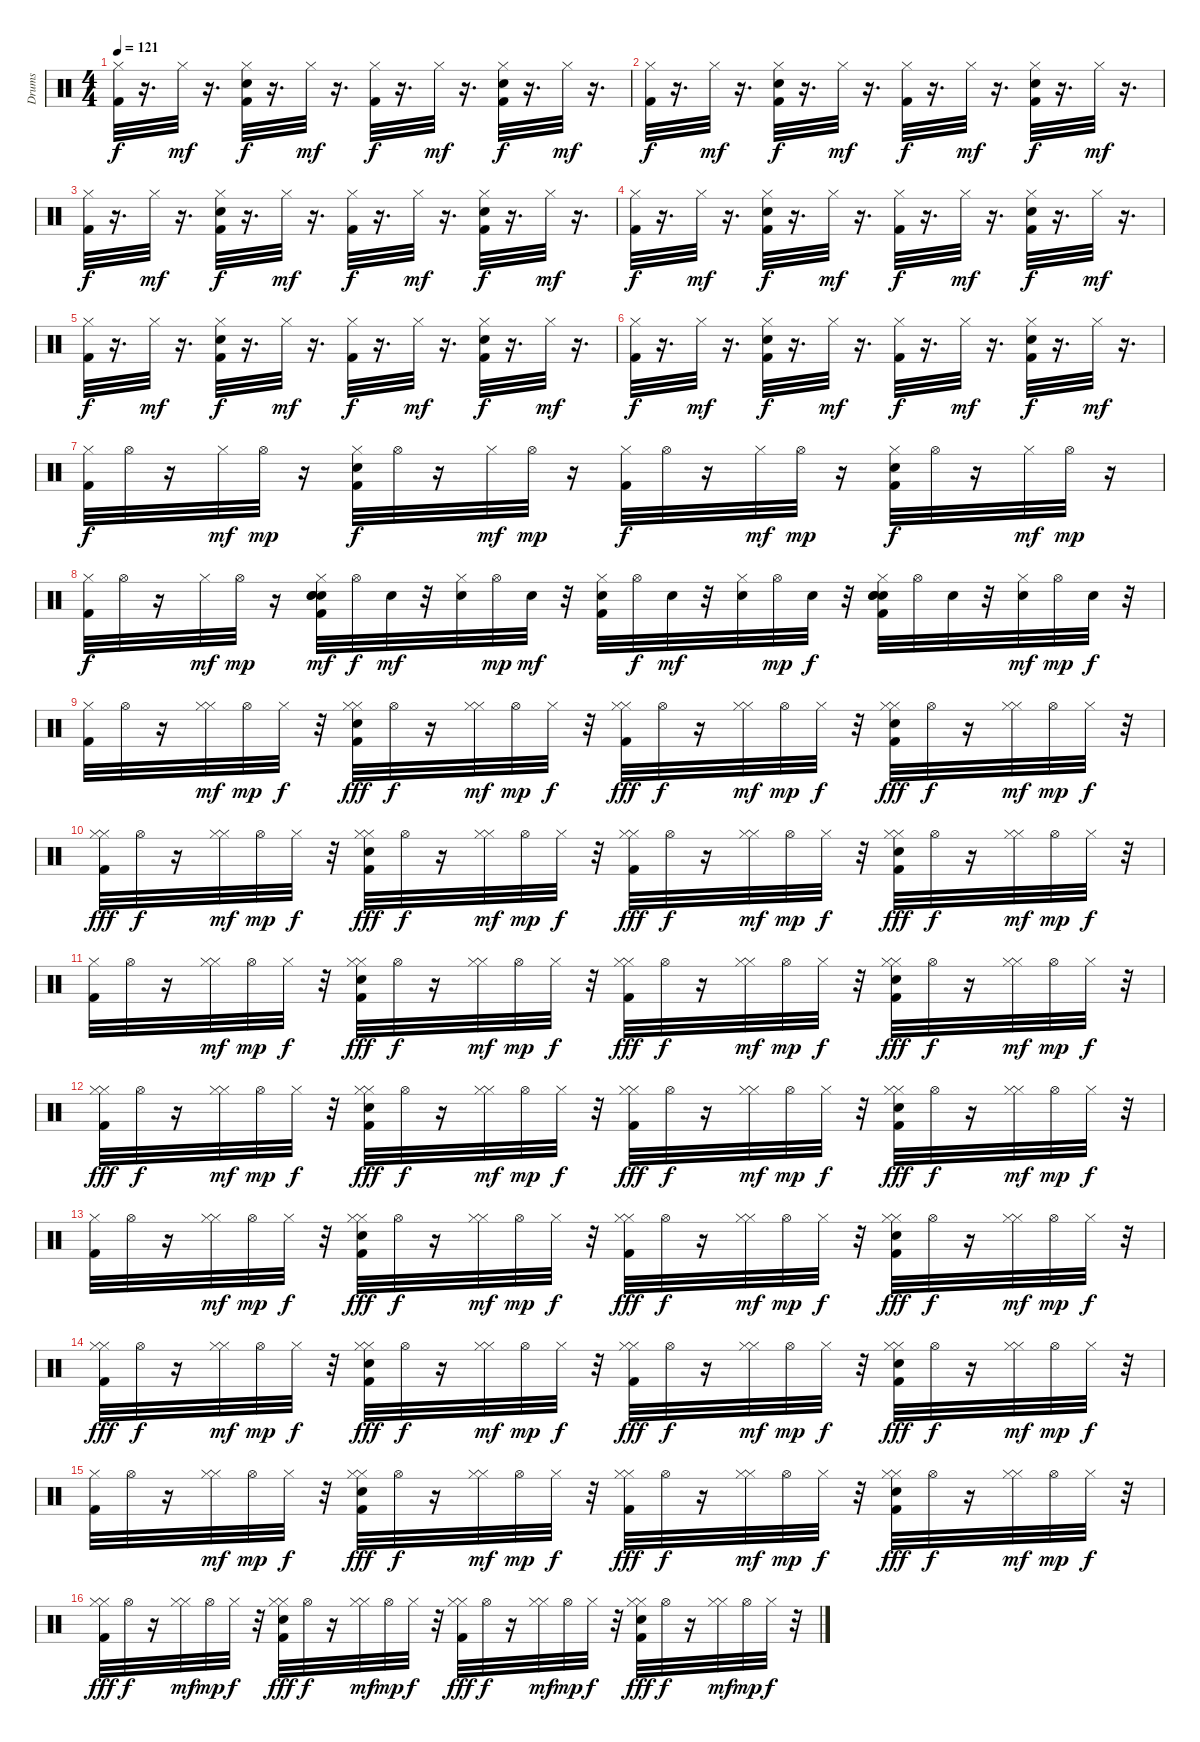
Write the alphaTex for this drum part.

\track ("Drums" "Drums") {instrument percussion}
\staff {score}
\articulation defaults
\ts (4 4)
\tempo 121
\clef neutral
\ks c
("Kick (hit) 2" "Hi-Hat (closed)").32{dy f} r.16{d} "Hi-Hat (closed)".32{dy mf} r.16{d} ("Kick (hit) 2" "Hi-Hat (closed)" "Snare (hit) 2").32{dy f} r.16{d} "Hi-Hat (closed)".32{dy mf} r.16{d} ("Hi-Hat (closed)" "Kick (hit) 2").32{dy f} r.16{d} "Hi-Hat (closed)".32{dy mf} r.16{d} ("Kick (hit) 2" "Hi-Hat (closed)" "Snare (hit) 2").32{dy f} r.16{d} "Hi-Hat (closed)".32{dy mf} r.16{d} |
("Hi-Hat (closed)" "Kick (hit) 2").32{dy f} r.16{d} "Hi-Hat (closed)".32{dy mf} r.16{d} ("Kick (hit) 2" "Hi-Hat (closed)" "Snare (hit) 2").32{dy f} r.16{d} "Hi-Hat (closed)".32{dy mf} r.16{d} ("Hi-Hat (closed)" "Kick (hit) 2").32{dy f} r.16{d} "Hi-Hat (closed)".32{dy mf} r.16{d} ("Kick (hit) 2" "Hi-Hat (closed)" "Snare (hit) 2").32{dy f} r.16{d} "Hi-Hat (closed)".32{dy mf} r.16{d} |
("Kick (hit) 2" "Hi-Hat (closed)").32{dy f} r.16{d} "Hi-Hat (closed)".32{dy mf} r.16{d} ("Kick (hit) 2" "Hi-Hat (closed)" "Snare (hit) 2").32{dy f} r.16{d} "Hi-Hat (closed)".32{dy mf} r.16{d} ("Hi-Hat (closed)" "Kick (hit) 2").32{dy f} r.16{d} "Hi-Hat (closed)".32{dy mf} r.16{d} ("Kick (hit) 2" "Hi-Hat (closed)" "Snare (hit) 2").32{dy f} r.16{d} "Hi-Hat (closed)".32{dy mf} r.16{d} |
("Hi-Hat (closed)" "Kick (hit) 2").32{dy f} r.16{d} "Hi-Hat (closed)".32{dy mf} r.16{d} ("Kick (hit) 2" "Hi-Hat (closed)" "Snare (hit) 2").32{dy f} r.16{d} "Hi-Hat (closed)".32{dy mf} r.16{d} ("Hi-Hat (closed)" "Kick (hit) 2").32{dy f} r.16{d} "Hi-Hat (closed)".32{dy mf} r.16{d} ("Kick (hit) 2" "Hi-Hat (closed)" "Snare (hit) 2").32{dy f} r.16{d} "Hi-Hat (closed)".32{dy mf} r.16{d} |
("Kick (hit) 2" "Hi-Hat (closed)").32{dy f} r.16{d} "Hi-Hat (closed)".32{dy mf} r.16{d} ("Kick (hit) 2" "Hi-Hat (closed)" "Snare (hit) 2").32{dy f} r.16{d} "Hi-Hat (closed)".32{dy mf} r.16{d} ("Hi-Hat (closed)" "Kick (hit) 2").32{dy f} r.16{d} "Hi-Hat (closed)".32{dy mf} r.16{d} ("Kick (hit) 2" "Hi-Hat (closed)" "Snare (hit) 2").32{dy f} r.16{d} "Hi-Hat (closed)".32{dy mf} r.16{d} |
("Hi-Hat (closed)" "Kick (hit) 2").32{dy f} r.16{d} "Hi-Hat (closed)".32{dy mf} r.16{d} ("Kick (hit) 2" "Hi-Hat (closed)" "Snare (hit) 2").32{dy f} r.16{d} "Hi-Hat (closed)".32{dy mf} r.16{d} ("Hi-Hat (closed)" "Kick (hit) 2").32{dy f} r.16{d} "Hi-Hat (closed)".32{dy mf} r.16{d} ("Kick (hit) 2" "Hi-Hat (closed)" "Snare (hit) 2").32{dy f} r.16{d} "Hi-Hat (closed)".32{dy mf} r.16{d} |
("Kick (hit) 2" "Hi-Hat (closed)").32{dy f} "Hi-Hat (open)".32 r.16 "Hi-Hat (closed)".32{dy mf} "Hi-Hat (open)".32{dy mp} r.16 ("Kick (hit) 2" "Hi-Hat (closed)" "Snare (hit) 2").32{dy f} "Hi-Hat (open)".32 r.16 "Hi-Hat (closed)".32{dy mf} "Hi-Hat (open)".32{dy mp} r.16 ("Hi-Hat (closed)" "Kick (hit) 2").32{dy f} "Hi-Hat (open)".32 r.16 "Hi-Hat (closed)".32{dy mf} "Hi-Hat (open)".32{dy mp} r.16 ("Kick (hit) 2" "Hi-Hat (closed)" "Snare (hit) 2").32{dy f} "Hi-Hat (open)".32 r.16 "Hi-Hat (closed)".32{dy mf} "Hi-Hat (open)".32{dy mp} r.16 |
("Hi-Hat (closed)" "Kick (hit) 2").32{dy f} "Hi-Hat (open)".32 r.16 "Hi-Hat (closed)".32{dy mf} "Hi-Hat (open)".32{dy mp} r.16 ("Kick (hit) 2" "Hi-Hat (closed)" "Snare (hit) 2" "Snare (hit) 2" "Snare (hit) 2").32{dy mf} "Hi-Hat (open)".32{dy f} "Snare (hit) 2".32{dy mf} r.32 ("Hi-Hat (closed)" "Snare (hit) 2").32 "Hi-Hat (open)".32{dy mp} "Snare (hit) 2".32{dy mf} r.32 ("Hi-Hat (closed)" "Kick (hit) 2" "Snare (hit) 2").32 "Hi-Hat (open)".32{dy f} "Snare (hit) 2".32{dy mf} r.32 ("Hi-Hat (closed)" "Snare (hit) 2").32 "Hi-Hat (open)".32{dy mp} "Snare (hit) 2".32{dy f} r.32 ("Kick (hit) 2" "Hi-Hat (closed)" "Snare (hit) 2" "Snare (hit) 2" "Snare (hit) 2").32 "Hi-Hat (open)".32 "Snare (hit) 2".32 r.32 ("Hi-Hat (closed)" "Snare (hit) 2").32{dy mf} "Hi-Hat (open)".32{dy mp} "Snare (hit) 2".32{dy f} r.32 |
("Kick (hit) 2" "Hi-Hat (closed)").32 "Hi-Hat (open)".32 r.16 ("Hi-Hat (closed)" "Hi-Hat (closed)").32{dy mf} "Hi-Hat (open)".32{dy mp} "Hi-Hat (closed)".32{dy f} r.32 ("Kick (hit) 2" "Hi-Hat (closed)" "Snare (hit) 2" "Hi-Hat (closed)").32{dy fff} "Hi-Hat (open)".32{dy f} r.16 ("Hi-Hat (closed)" "Hi-Hat (closed)").32{dy mf} "Hi-Hat (open)".32{dy mp} "Hi-Hat (closed)".32{dy f} r.32 ("Hi-Hat (closed)" "Kick (hit) 2" "Hi-Hat (closed)").32{dy fff} "Hi-Hat (open)".32{dy f} r.16 ("Hi-Hat (closed)" "Hi-Hat (closed)").32{dy mf} "Hi-Hat (open)".32{dy mp} "Hi-Hat (closed)".32{dy f} r.32 ("Kick (hit) 2" "Hi-Hat (closed)" "Snare (hit) 2" "Hi-Hat (closed)").32{dy fff} "Hi-Hat (open)".32{dy f} r.16 ("Hi-Hat (closed)" "Hi-Hat (closed)").32{dy mf} "Hi-Hat (open)".32{dy mp} "Hi-Hat (closed)".32{dy f} r.32 |
("Hi-Hat (closed)" "Kick (hit) 2" "Hi-Hat (closed)").32{dy fff} "Hi-Hat (open)".32{dy f} r.16 ("Hi-Hat (closed)" "Hi-Hat (closed)").32{dy mf} "Hi-Hat (open)".32{dy mp} "Hi-Hat (closed)".32{dy f} r.32 ("Kick (hit) 2" "Hi-Hat (closed)" "Snare (hit) 2" "Hi-Hat (closed)").32{dy fff} "Hi-Hat (open)".32{dy f} r.16 ("Hi-Hat (closed)" "Hi-Hat (closed)").32{dy mf} "Hi-Hat (open)".32{dy mp} "Hi-Hat (closed)".32{dy f} r.32 ("Hi-Hat (closed)" "Kick (hit) 2" "Hi-Hat (closed)").32{dy fff} "Hi-Hat (open)".32{dy f} r.16 ("Hi-Hat (closed)" "Hi-Hat (closed)").32{dy mf} "Hi-Hat (open)".32{dy mp} "Hi-Hat (closed)".32{dy f} r.32 ("Kick (hit) 2" "Hi-Hat (closed)" "Snare (hit) 2" "Hi-Hat (closed)").32{dy fff} "Hi-Hat (open)".32{dy f} r.16 ("Hi-Hat (closed)" "Hi-Hat (closed)").32{dy mf} "Hi-Hat (open)".32{dy mp} "Hi-Hat (closed)".32{dy f} r.32 |
("Kick (hit) 2" "Hi-Hat (closed)").32 "Hi-Hat (open)".32 r.16 ("Hi-Hat (closed)" "Hi-Hat (closed)").32{dy mf} "Hi-Hat (open)".32{dy mp} "Hi-Hat (closed)".32{dy f} r.32 ("Kick (hit) 2" "Hi-Hat (closed)" "Snare (hit) 2" "Hi-Hat (closed)").32{dy fff} "Hi-Hat (open)".32{dy f} r.16 ("Hi-Hat (closed)" "Hi-Hat (closed)").32{dy mf} "Hi-Hat (open)".32{dy mp} "Hi-Hat (closed)".32{dy f} r.32 ("Hi-Hat (closed)" "Kick (hit) 2" "Hi-Hat (closed)").32{dy fff} "Hi-Hat (open)".32{dy f} r.16 ("Hi-Hat (closed)" "Hi-Hat (closed)").32{dy mf} "Hi-Hat (open)".32{dy mp} "Hi-Hat (closed)".32{dy f} r.32 ("Kick (hit) 2" "Hi-Hat (closed)" "Snare (hit) 2" "Hi-Hat (closed)").32{dy fff} "Hi-Hat (open)".32{dy f} r.16 ("Hi-Hat (closed)" "Hi-Hat (closed)").32{dy mf} "Hi-Hat (open)".32{dy mp} "Hi-Hat (closed)".32{dy f} r.32 |
("Hi-Hat (closed)" "Kick (hit) 2" "Hi-Hat (closed)").32{dy fff} "Hi-Hat (open)".32{dy f} r.16 ("Hi-Hat (closed)" "Hi-Hat (closed)").32{dy mf} "Hi-Hat (open)".32{dy mp} "Hi-Hat (closed)".32{dy f} r.32 ("Kick (hit) 2" "Hi-Hat (closed)" "Snare (hit) 2" "Hi-Hat (closed)").32{dy fff} "Hi-Hat (open)".32{dy f} r.16 ("Hi-Hat (closed)" "Hi-Hat (closed)").32{dy mf} "Hi-Hat (open)".32{dy mp} "Hi-Hat (closed)".32{dy f} r.32 ("Hi-Hat (closed)" "Kick (hit) 2" "Hi-Hat (closed)").32{dy fff} "Hi-Hat (open)".32{dy f} r.16 ("Hi-Hat (closed)" "Hi-Hat (closed)").32{dy mf} "Hi-Hat (open)".32{dy mp} "Hi-Hat (closed)".32{dy f} r.32 ("Kick (hit) 2" "Hi-Hat (closed)" "Snare (hit) 2" "Hi-Hat (closed)").32{dy fff} "Hi-Hat (open)".32{dy f} r.16 ("Hi-Hat (closed)" "Hi-Hat (closed)").32{dy mf} "Hi-Hat (open)".32{dy mp} "Hi-Hat (closed)".32{dy f} r.32 |
("Kick (hit) 2" "Hi-Hat (closed)").32 "Hi-Hat (open)".32 r.16 ("Hi-Hat (closed)" "Hi-Hat (closed)").32{dy mf} "Hi-Hat (open)".32{dy mp} "Hi-Hat (closed)".32{dy f} r.32 ("Kick (hit) 2" "Hi-Hat (closed)" "Snare (hit) 2" "Hi-Hat (closed)").32{dy fff} "Hi-Hat (open)".32{dy f} r.16 ("Hi-Hat (closed)" "Hi-Hat (closed)").32{dy mf} "Hi-Hat (open)".32{dy mp} "Hi-Hat (closed)".32{dy f} r.32 ("Hi-Hat (closed)" "Kick (hit) 2" "Hi-Hat (closed)").32{dy fff} "Hi-Hat (open)".32{dy f} r.16 ("Hi-Hat (closed)" "Hi-Hat (closed)").32{dy mf} "Hi-Hat (open)".32{dy mp} "Hi-Hat (closed)".32{dy f} r.32 ("Kick (hit) 2" "Hi-Hat (closed)" "Snare (hit) 2" "Hi-Hat (closed)").32{dy fff} "Hi-Hat (open)".32{dy f} r.16 ("Hi-Hat (closed)" "Hi-Hat (closed)").32{dy mf} "Hi-Hat (open)".32{dy mp} "Hi-Hat (closed)".32{dy f} r.32 |
("Hi-Hat (closed)" "Kick (hit) 2" "Hi-Hat (closed)").32{dy fff} "Hi-Hat (open)".32{dy f} r.16 ("Hi-Hat (closed)" "Hi-Hat (closed)").32{dy mf} "Hi-Hat (open)".32{dy mp} "Hi-Hat (closed)".32{dy f} r.32 ("Kick (hit) 2" "Hi-Hat (closed)" "Snare (hit) 2" "Hi-Hat (closed)").32{dy fff} "Hi-Hat (open)".32{dy f} r.16 ("Hi-Hat (closed)" "Hi-Hat (closed)").32{dy mf} "Hi-Hat (open)".32{dy mp} "Hi-Hat (closed)".32{dy f} r.32 ("Hi-Hat (closed)" "Kick (hit) 2" "Hi-Hat (closed)").32{dy fff} "Hi-Hat (open)".32{dy f} r.16 ("Hi-Hat (closed)" "Hi-Hat (closed)").32{dy mf} "Hi-Hat (open)".32{dy mp} "Hi-Hat (closed)".32{dy f} r.32 ("Kick (hit) 2" "Hi-Hat (closed)" "Snare (hit) 2" "Hi-Hat (closed)").32{dy fff} "Hi-Hat (open)".32{dy f} r.16 ("Hi-Hat (closed)" "Hi-Hat (closed)").32{dy mf} "Hi-Hat (open)".32{dy mp} "Hi-Hat (closed)".32{dy f} r.32 |
("Kick (hit) 2" "Hi-Hat (closed)").32 "Hi-Hat (open)".32 r.16 ("Hi-Hat (closed)" "Hi-Hat (closed)").32{dy mf} "Hi-Hat (open)".32{dy mp} "Hi-Hat (closed)".32{dy f} r.32 ("Kick (hit) 2" "Hi-Hat (closed)" "Snare (hit) 2" "Hi-Hat (closed)").32{dy fff} "Hi-Hat (open)".32{dy f} r.16 ("Hi-Hat (closed)" "Hi-Hat (closed)").32{dy mf} "Hi-Hat (open)".32{dy mp} "Hi-Hat (closed)".32{dy f} r.32 ("Hi-Hat (closed)" "Kick (hit) 2" "Hi-Hat (closed)").32{dy fff} "Hi-Hat (open)".32{dy f} r.16 ("Hi-Hat (closed)" "Hi-Hat (closed)").32{dy mf} "Hi-Hat (open)".32{dy mp} "Hi-Hat (closed)".32{dy f} r.32 ("Kick (hit) 2" "Hi-Hat (closed)" "Snare (hit) 2" "Hi-Hat (closed)").32{dy fff} "Hi-Hat (open)".32{dy f} r.16 ("Hi-Hat (closed)" "Hi-Hat (closed)").32{dy mf} "Hi-Hat (open)".32{dy mp} "Hi-Hat (closed)".32{dy f} r.32 |
("Hi-Hat (closed)" "Kick (hit) 2" "Hi-Hat (closed)").32{dy fff} "Hi-Hat (open)".32{dy f} r.16 ("Hi-Hat (closed)" "Hi-Hat (closed)").32{dy mf} "Hi-Hat (open)".32{dy mp} "Hi-Hat (closed)".32{dy f} r.32 ("Kick (hit) 2" "Hi-Hat (closed)" "Snare (hit) 2" "Hi-Hat (closed)").32{dy fff} "Hi-Hat (open)".32{dy f} r.16 ("Hi-Hat (closed)" "Hi-Hat (closed)").32{dy mf} "Hi-Hat (open)".32{dy mp} "Hi-Hat (closed)".32{dy f} r.32 ("Hi-Hat (closed)" "Kick (hit) 2" "Hi-Hat (closed)").32{dy fff} "Hi-Hat (open)".32{dy f} r.16 ("Hi-Hat (closed)" "Hi-Hat (closed)").32{dy mf} "Hi-Hat (open)".32{dy mp} "Hi-Hat (closed)".32{dy f} r.32 ("Kick (hit) 2" "Hi-Hat (closed)" "Snare (hit) 2" "Hi-Hat (closed)").32{dy fff} "Hi-Hat (open)".32{dy f} r.16 ("Hi-Hat (closed)" "Hi-Hat (closed)").32{dy mf} "Hi-Hat (open)".32{dy mp} "Hi-Hat (closed)".32{dy f} r.32
